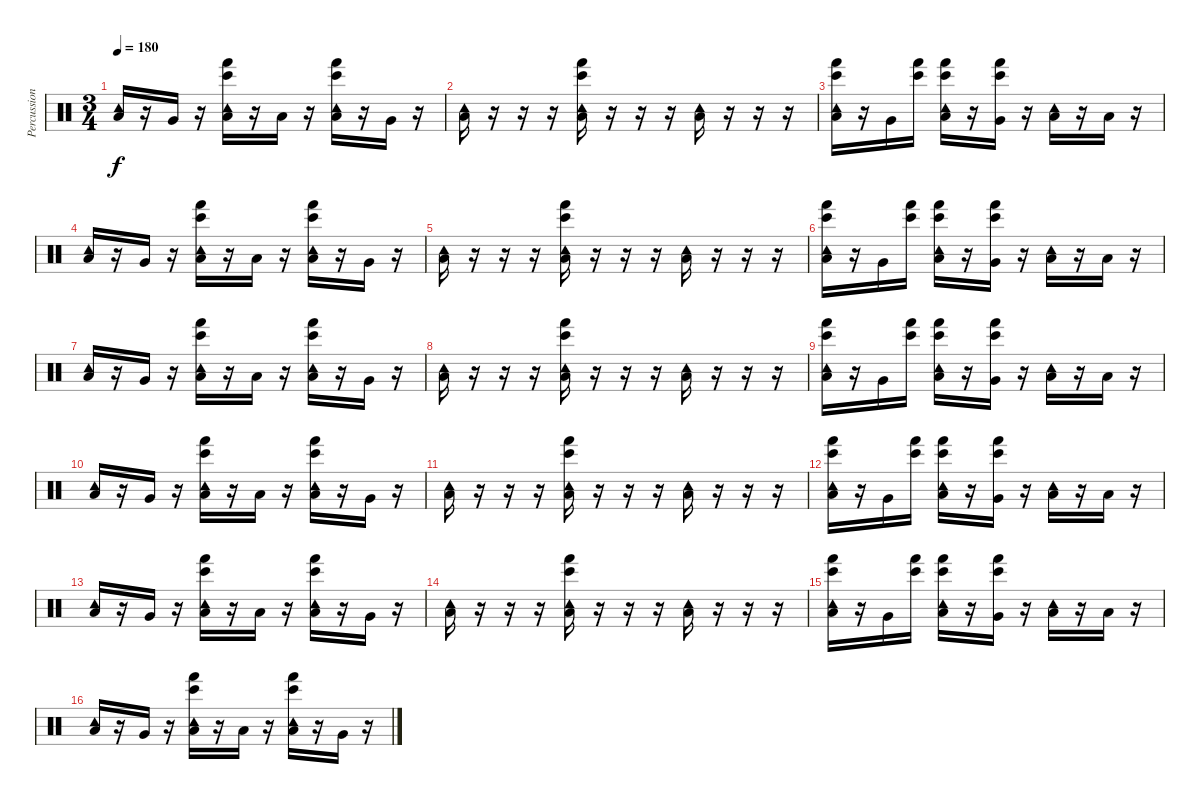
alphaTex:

\track ("Percussion" "Percussion") {instrument percussion}
\staff {score}
\articulation defaults
\ts (3 4)
\tempo 180
\clef neutral
\ks c
("Tambourine (hit)" "Low Floor Tom (hit)").16{dy f} r.16 "Very Low Tom (hit)".16 r.16 ("Tambourine (hit)" "Hand (hit)" "Bongo High (hit)" "Low Floor Tom (hit)").16 r.16 "Low Floor Tom (hit)".16 r.16 ("Tambourine (hit)" "Hand (hit)" "Bongo High (hit)" "Low Floor Tom (hit)").16 r.16 "Very Low Tom (hit)".16 r.16 |
("Tambourine (hit)" "Low Floor Tom (hit)").16 r.16 r.16 r.16 ("Tambourine (hit)" "Hand (hit)" "Bongo High (hit)" "Low Floor Tom (hit)").16 r.16 r.16 r.16 ("Tambourine (hit)" "Low Floor Tom (hit)").16 r.16 r.16 r.16 |
("Tambourine (hit)" "Hand (hit)" "Bongo High (hit)" "Low Floor Tom (hit)").16 r.16 "Very Low Tom (hit)".16 ("Hand (hit)" "Bongo High (hit)").16 ("Tambourine (hit)" "Hand (hit)" "Bongo High (hit)" "Low Floor Tom (hit)").16 r.16 ("Hand (hit)" "Bongo High (hit)" "Very Low Tom (hit)").16 r.16 ("Tambourine (hit)" "Low Floor Tom (hit)").16 r.16 "Low Floor Tom (hit)".16 r.16 |
("Tambourine (hit)" "Low Floor Tom (hit)").16 r.16 "Very Low Tom (hit)".16 r.16 ("Tambourine (hit)" "Hand (hit)" "Bongo High (hit)" "Low Floor Tom (hit)").16 r.16 "Low Floor Tom (hit)".16 r.16 ("Tambourine (hit)" "Hand (hit)" "Bongo High (hit)" "Low Floor Tom (hit)").16 r.16 "Very Low Tom (hit)".16 r.16 |
("Tambourine (hit)" "Low Floor Tom (hit)").16 r.16 r.16 r.16 ("Tambourine (hit)" "Hand (hit)" "Bongo High (hit)" "Low Floor Tom (hit)").16 r.16 r.16 r.16 ("Tambourine (hit)" "Low Floor Tom (hit)").16 r.16 r.16 r.16 |
("Tambourine (hit)" "Hand (hit)" "Bongo High (hit)" "Low Floor Tom (hit)").16 r.16 "Very Low Tom (hit)".16 ("Hand (hit)" "Bongo High (hit)").16 ("Tambourine (hit)" "Hand (hit)" "Bongo High (hit)" "Low Floor Tom (hit)").16 r.16 ("Hand (hit)" "Bongo High (hit)" "Very Low Tom (hit)").16 r.16 ("Tambourine (hit)" "Low Floor Tom (hit)").16 r.16 "Low Floor Tom (hit)".16 r.16 |
("Tambourine (hit)" "Low Floor Tom (hit)").16 r.16 "Very Low Tom (hit)".16 r.16 ("Tambourine (hit)" "Hand (hit)" "Bongo High (hit)" "Low Floor Tom (hit)").16 r.16 "Low Floor Tom (hit)".16 r.16 ("Tambourine (hit)" "Hand (hit)" "Bongo High (hit)" "Low Floor Tom (hit)").16 r.16 "Very Low Tom (hit)".16 r.16 |
("Tambourine (hit)" "Low Floor Tom (hit)").16 r.16 r.16 r.16 ("Tambourine (hit)" "Hand (hit)" "Bongo High (hit)" "Low Floor Tom (hit)").16 r.16 r.16 r.16 ("Tambourine (hit)" "Low Floor Tom (hit)").16 r.16 r.16 r.16 |
("Tambourine (hit)" "Hand (hit)" "Bongo High (hit)" "Low Floor Tom (hit)").16 r.16 "Very Low Tom (hit)".16 ("Hand (hit)" "Bongo High (hit)").16 ("Tambourine (hit)" "Hand (hit)" "Bongo High (hit)" "Low Floor Tom (hit)").16 r.16 ("Hand (hit)" "Bongo High (hit)" "Very Low Tom (hit)").16 r.16 ("Tambourine (hit)" "Low Floor Tom (hit)").16 r.16 "Low Floor Tom (hit)".16 r.16 |
("Tambourine (hit)" "Low Floor Tom (hit)").16 r.16 "Very Low Tom (hit)".16 r.16 ("Tambourine (hit)" "Hand (hit)" "Bongo High (hit)" "Low Floor Tom (hit)").16 r.16 "Low Floor Tom (hit)".16 r.16 ("Tambourine (hit)" "Hand (hit)" "Bongo High (hit)" "Low Floor Tom (hit)").16 r.16 "Very Low Tom (hit)".16 r.16 |
("Tambourine (hit)" "Low Floor Tom (hit)").16 r.16 r.16 r.16 ("Tambourine (hit)" "Hand (hit)" "Bongo High (hit)" "Low Floor Tom (hit)").16 r.16 r.16 r.16 ("Tambourine (hit)" "Low Floor Tom (hit)").16 r.16 r.16 r.16 |
("Tambourine (hit)" "Hand (hit)" "Bongo High (hit)" "Low Floor Tom (hit)").16 r.16 "Very Low Tom (hit)".16 ("Hand (hit)" "Bongo High (hit)").16 ("Tambourine (hit)" "Hand (hit)" "Bongo High (hit)" "Low Floor Tom (hit)").16 r.16 ("Hand (hit)" "Bongo High (hit)" "Very Low Tom (hit)").16 r.16 ("Tambourine (hit)" "Low Floor Tom (hit)").16 r.16 "Low Floor Tom (hit)".16 r.16 |
("Tambourine (hit)" "Low Floor Tom (hit)").16 r.16 "Very Low Tom (hit)".16 r.16 ("Tambourine (hit)" "Hand (hit)" "Bongo High (hit)" "Low Floor Tom (hit)").16 r.16 "Low Floor Tom (hit)".16 r.16 ("Tambourine (hit)" "Hand (hit)" "Bongo High (hit)" "Low Floor Tom (hit)").16 r.16 "Very Low Tom (hit)".16 r.16 |
("Tambourine (hit)" "Low Floor Tom (hit)").16 r.16 r.16 r.16 ("Tambourine (hit)" "Hand (hit)" "Bongo High (hit)" "Low Floor Tom (hit)").16 r.16 r.16 r.16 ("Tambourine (hit)" "Low Floor Tom (hit)").16 r.16 r.16 r.16 |
("Tambourine (hit)" "Hand (hit)" "Bongo High (hit)" "Low Floor Tom (hit)").16 r.16 "Very Low Tom (hit)".16 ("Hand (hit)" "Bongo High (hit)").16 ("Tambourine (hit)" "Hand (hit)" "Bongo High (hit)" "Low Floor Tom (hit)").16 r.16 ("Hand (hit)" "Bongo High (hit)" "Very Low Tom (hit)").16 r.16 ("Tambourine (hit)" "Low Floor Tom (hit)").16 r.16 "Low Floor Tom (hit)".16 r.16 |
("Tambourine (hit)" "Low Floor Tom (hit)").16 r.16 "Very Low Tom (hit)".16 r.16 ("Tambourine (hit)" "Hand (hit)" "Bongo High (hit)" "Low Floor Tom (hit)").16 r.16 "Low Floor Tom (hit)".16 r.16 ("Tambourine (hit)" "Hand (hit)" "Bongo High (hit)" "Low Floor Tom (hit)").16 r.16 "Very Low Tom (hit)".16 r.16
